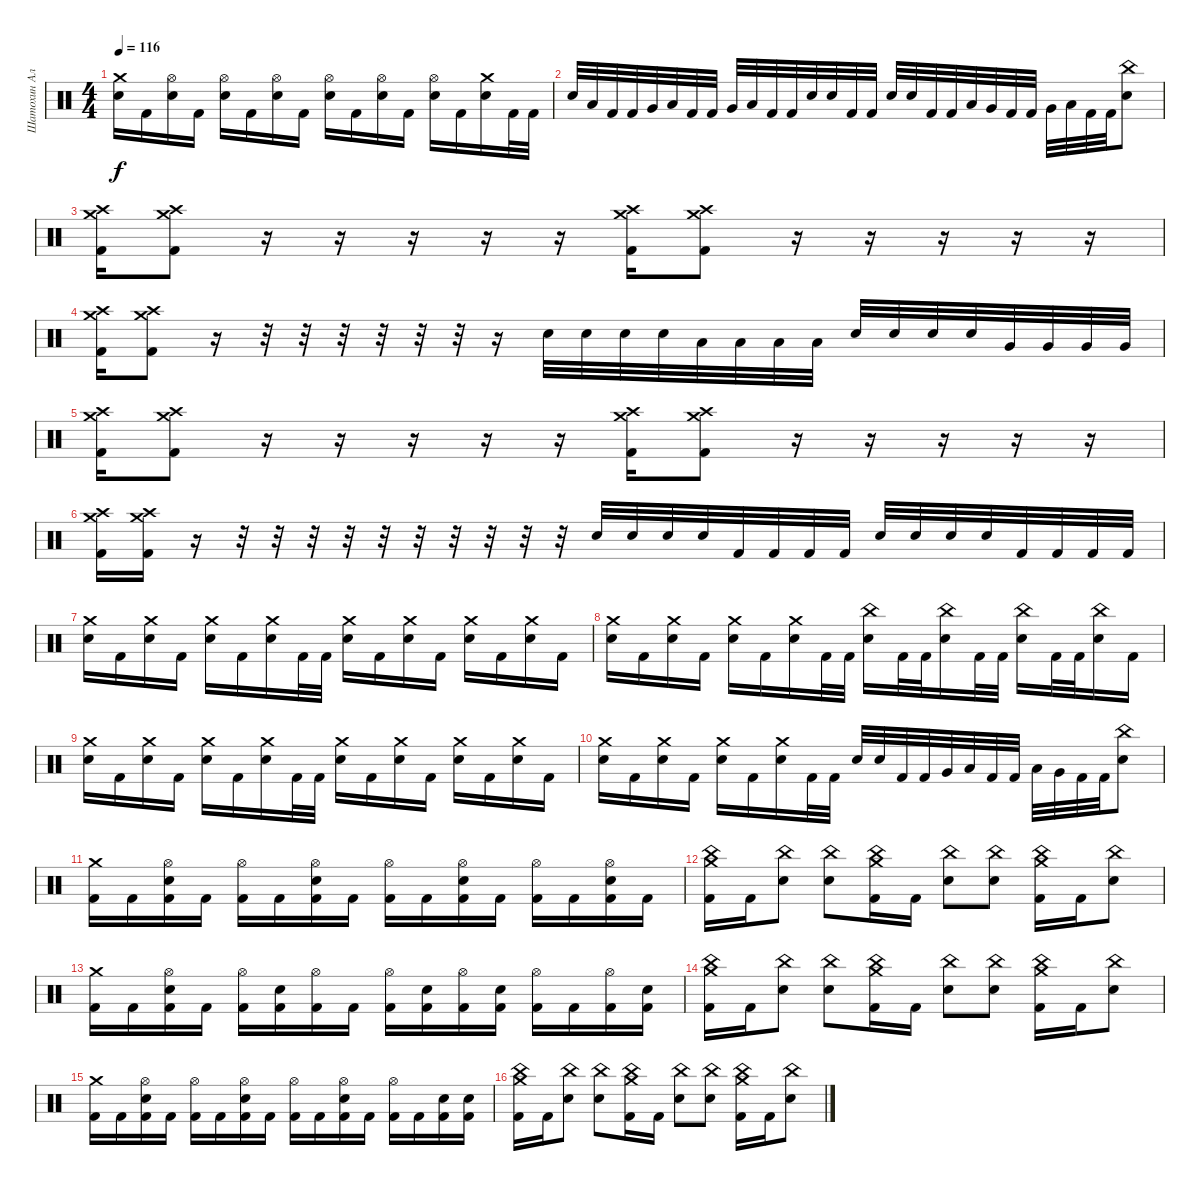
\track ("Шатохин Алексей" "Шатохин Ал") {instrument percussion}
\staff {score}
\articulation defaults
\ts (4 4)
\tempo 116
\clef neutral
\ks c
("Crash medium (hit)" "Electric Snare (hit)").16{dy f} "Kick (hit) 2".16 ("Hi-Hat (open)" "Electric Snare (hit)").16 "Kick (hit) 2".16 ("Hi-Hat (open)" "Electric Snare (hit)").16 "Kick (hit) 2".16 ("Hi-Hat (open)" "Electric Snare (hit)").16 "Kick (hit) 2".16 ("Hi-Hat (open)" "Electric Snare (hit)").16 "Kick (hit) 2".16 ("Hi-Hat (open)" "Electric Snare (hit)").16 "Kick (hit) 2".16 ("Hi-Hat (open)" "Electric Snare (hit)").16 "Kick (hit) 2".16 ("Crash medium (hit)" "Electric Snare (hit)").16 "Kick (hit) 2".32 "Kick (hit) 2".32 |
"Electric Snare (hit)".32 "Low Tom (hit)".32 "Kick (hit) 2".32 "Kick (hit) 2".32 "Very Low Tom (hit)".32 "Low Tom (hit)".32 "Kick (hit) 2".32 "Kick (hit) 2".32 "Very Low Tom (hit)".32 "Low Tom (hit)".32 "Kick (hit) 2".32 "Kick (hit) 2".32 "Electric Snare (hit)".32 "Electric Snare (hit)".32 "Kick (hit) 2".32 "Kick (hit) 2".32 "Electric Snare (hit)".32 "Electric Snare (hit)".32 "Kick (hit) 2".32 "Kick (hit) 2".32 "Low Floor Tom (hit)".32 "Very Low Tom (hit)".32 "Kick (hit) 2".32 "Kick (hit) 2".32 "Very Low Tom (hit)".32 "Low Floor Tom (hit)".32 "Kick (hit) 2".32 "Kick (hit) 2".32 ("China (hit)" "Electric Snare (hit)").8 |
("Crash high (hit)" "Crash medium (hit)" "Kick (hit) 2").16 ("Crash high (hit)" "Crash medium (hit)" "Kick (hit) 2").8 r.16 r.16 r.16 r.16 r.16 ("Crash high (hit)" "Crash medium (hit)" "Kick (hit) 2").16 ("Crash high (hit)" "Crash medium (hit)" "Kick (hit) 2").8 r.16 r.16 r.16 r.16 r.16 |
("Crash high (hit)" "Crash medium (hit)" "Kick (hit) 2").16 ("Crash high (hit)" "Crash medium (hit)" "Kick (hit) 2").8 r.16 r.32 r.32 r.32 r.32 r.32 r.32 r.16 "Electric Snare (hit)".32 "Electric Snare (hit)".32 "Electric Snare (hit)".32 "Electric Snare (hit)".32 "Low Tom (hit)".32 "Low Tom (hit)".32 "Low Tom (hit)".32 "Low Tom (hit)".32 "Electric Snare (hit)".32 "Electric Snare (hit)".32 "Electric Snare (hit)".32 "Electric Snare (hit)".32 "Very Low Tom (hit)".32 "Very Low Tom (hit)".32 "Very Low Tom (hit)".32 "Very Low Tom (hit)".32 |
("Crash high (hit)" "Crash medium (hit)" "Kick (hit) 2").16 ("Crash high (hit)" "Crash medium (hit)" "Kick (hit) 2").8 r.16 r.16 r.16 r.16 r.16 ("Crash high (hit)" "Crash medium (hit)" "Kick (hit) 2").16 ("Crash high (hit)" "Crash medium (hit)" "Kick (hit) 2").8 r.16 r.16 r.16 r.16 r.16 |
("Crash high (hit)" "Crash medium (hit)" "Kick (hit) 2").16 ("Crash high (hit)" "Crash medium (hit)" "Kick (hit) 2").16 r.16 r.32 r.32 r.32 r.32 r.32 r.32 r.32 r.32 r.32 r.32 "Electric Snare (hit)".32 "Electric Snare (hit)".32 "Electric Snare (hit)".32 "Electric Snare (hit)".32 "Kick (hit) 2".32 "Kick (hit) 2".32 "Kick (hit) 2".32 "Kick (hit) 2".32 "Electric Snare (hit)".32 "Electric Snare (hit)".32 "Electric Snare (hit)".32 "Electric Snare (hit)".32 "Kick (hit) 2".32 "Kick (hit) 2".32 "Kick (hit) 2".32 "Kick (hit) 2".32 |
("Crash medium (hit)" "Electric Snare (hit)").16 "Kick (hit) 2".16 ("Crash medium (hit)" "Electric Snare (hit)").16 "Kick (hit) 2".16 ("Crash medium (hit)" "Electric Snare (hit)").16 "Kick (hit) 2".16 ("Crash medium (hit)" "Electric Snare (hit)").16 "Kick (hit) 2".32 "Kick (hit) 2".32 ("Crash medium (hit)" "Electric Snare (hit)").16 "Kick (hit) 2".16 ("Crash medium (hit)" "Electric Snare (hit)").16 "Kick (hit) 2".16 ("Crash medium (hit)" "Electric Snare (hit)").16 "Kick (hit) 2".16 ("Crash medium (hit)" "Electric Snare (hit)").16 "Kick (hit) 2".16 |
("Crash medium (hit)" "Electric Snare (hit)").16 "Kick (hit) 2".16 ("Crash medium (hit)" "Electric Snare (hit)").16 "Kick (hit) 2".16 ("Crash medium (hit)" "Electric Snare (hit)").16 "Kick (hit) 2".16 ("Crash medium (hit)" "Electric Snare (hit)").16 "Kick (hit) 2".32 "Kick (hit) 2".32 ("China (hit)" "Electric Snare (hit)").16 "Kick (hit) 2".32 "Kick (hit) 2".32 ("China (hit)" "Electric Snare (hit)").16 "Kick (hit) 2".32 "Kick (hit) 2".32 ("China (hit)" "Electric Snare (hit)").16 "Kick (hit) 2".32 "Kick (hit) 2".32 ("China (hit)" "Electric Snare (hit)").16 "Kick (hit) 2".16 |
("Crash medium (hit)" "Electric Snare (hit)").16 "Kick (hit) 2".16 ("Crash medium (hit)" "Electric Snare (hit)").16 "Kick (hit) 2".16 ("Crash medium (hit)" "Electric Snare (hit)").16 "Kick (hit) 2".16 ("Crash medium (hit)" "Electric Snare (hit)").16 "Kick (hit) 2".32 "Kick (hit) 2".32 ("Crash medium (hit)" "Electric Snare (hit)").16 "Kick (hit) 2".16 ("Crash medium (hit)" "Electric Snare (hit)").16 "Kick (hit) 2".16 ("Crash medium (hit)" "Electric Snare (hit)").16 "Kick (hit) 2".16 ("Crash medium (hit)" "Electric Snare (hit)").16 "Kick (hit) 2".16 |
("Crash medium (hit)" "Electric Snare (hit)").16 "Kick (hit) 2".16 ("Crash medium (hit)" "Electric Snare (hit)").16 "Kick (hit) 2".16 ("Crash medium (hit)" "Electric Snare (hit)").16 "Kick (hit) 2".16 ("Crash medium (hit)" "Electric Snare (hit)").16 "Kick (hit) 2".32 "Kick (hit) 2".32 "Electric Snare (hit)".32 "Electric Snare (hit)".32 "Kick (hit) 2".32 "Kick (hit) 2".32 "Very Low Tom (hit)".32 "Low Tom (hit)".32 "Kick (hit) 2".32 "Kick (hit) 2".32 "Low Floor Tom (hit)".32 "Very Low Tom (hit)".32 "Kick (hit) 2".32 "Kick (hit) 2".32 ("China (hit)" "Electric Snare (hit)").8 |
("Crash medium (hit)" "Kick (hit) 2").16 "Kick (hit) 2".16 ("Hi-Hat (open)" "Electric Snare (hit)" "Kick (hit) 2").16 "Kick (hit) 2".16 ("Hi-Hat (open)" "Kick (hit) 2").16 "Kick (hit) 2".16 ("Hi-Hat (open)" "Electric Snare (hit)" "Kick (hit) 2").16 "Kick (hit) 2".16 ("Hi-Hat (open)" "Kick (hit) 2").16 "Kick (hit) 2".16 ("Hi-Hat (open)" "Electric Snare (hit)" "Kick (hit) 2").16 "Kick (hit) 2".16 ("Hi-Hat (open)" "Kick (hit) 2").16 "Kick (hit) 2".16 ("Hi-Hat (open)" "Electric Snare (hit)" "Kick (hit) 2").16 "Kick (hit) 2".16 |
("China (hit)" "Crash medium (hit)" "Kick (hit) 2").16 "Kick (hit) 2".16 ("China (hit)" "Electric Snare (hit)").8 ("China (hit)" "Electric Snare (hit)").8 ("China (hit)" "Crash medium (hit)" "Kick (hit) 2").16 "Kick (hit) 2".16 ("China (hit)" "Electric Snare (hit)").8 ("China (hit)" "Electric Snare (hit)").8 ("China (hit)" "Crash medium (hit)" "Kick (hit) 2").16 "Kick (hit) 2".16 ("China (hit)" "Electric Snare (hit)").8 |
("Crash medium (hit)" "Kick (hit) 2").16 "Kick (hit) 2".16 ("Hi-Hat (open)" "Electric Snare (hit)" "Kick (hit) 2").16 "Kick (hit) 2".16 ("Hi-Hat (open)" "Kick (hit) 2").16 ("Electric Snare (hit)" "Kick (hit) 2").16 ("Hi-Hat (open)" "Kick (hit) 2").16 "Kick (hit) 2".16 ("Hi-Hat (open)" "Kick (hit) 2").16 ("Electric Snare (hit)" "Kick (hit) 2").16 ("Hi-Hat (open)" "Kick (hit) 2").16 ("Electric Snare (hit)" "Kick (hit) 2").16 ("Hi-Hat (open)" "Kick (hit) 2").16 "Kick (hit) 2".16 ("Hi-Hat (open)" "Kick (hit) 2").16 ("Electric Snare (hit)" "Kick (hit) 2").16 |
("China (hit)" "Crash medium (hit)" "Kick (hit) 2").16 "Kick (hit) 2".16 ("China (hit)" "Electric Snare (hit)").8 ("China (hit)" "Electric Snare (hit)").8 ("China (hit)" "Crash medium (hit)" "Kick (hit) 2").16 "Kick (hit) 2".16 ("China (hit)" "Electric Snare (hit)").8 ("China (hit)" "Electric Snare (hit)").8 ("China (hit)" "Crash medium (hit)" "Kick (hit) 2").16 "Kick (hit) 2".16 ("China (hit)" "Electric Snare (hit)").8 |
("Crash medium (hit)" "Kick (hit) 2").16 "Kick (hit) 2".16 ("Hi-Hat (open)" "Electric Snare (hit)" "Kick (hit) 2").16 "Kick (hit) 2".16 ("Hi-Hat (open)" "Kick (hit) 2").16 "Kick (hit) 2".16 ("Hi-Hat (open)" "Electric Snare (hit)" "Kick (hit) 2").16 "Kick (hit) 2".16 ("Hi-Hat (open)" "Kick (hit) 2").16 "Kick (hit) 2".16 ("Hi-Hat (open)" "Electric Snare (hit)" "Kick (hit) 2").16 "Kick (hit) 2".16 ("Hi-Hat (open)" "Kick (hit) 2").16 "Kick (hit) 2".16 ("Electric Snare (hit)" "Kick (hit) 2").16 ("Electric Snare (hit)" "Kick (hit) 2").16 |
("China (hit)" "Crash medium (hit)" "Kick (hit) 2").16 "Kick (hit) 2".16 ("China (hit)" "Electric Snare (hit)").8 ("China (hit)" "Electric Snare (hit)").8 ("China (hit)" "Crash medium (hit)" "Kick (hit) 2").16 "Kick (hit) 2".16 ("China (hit)" "Electric Snare (hit)").8 ("China (hit)" "Electric Snare (hit)").8 ("China (hit)" "Crash medium (hit)" "Kick (hit) 2").16 "Kick (hit) 2".16 ("China (hit)" "Electric Snare (hit)").8
